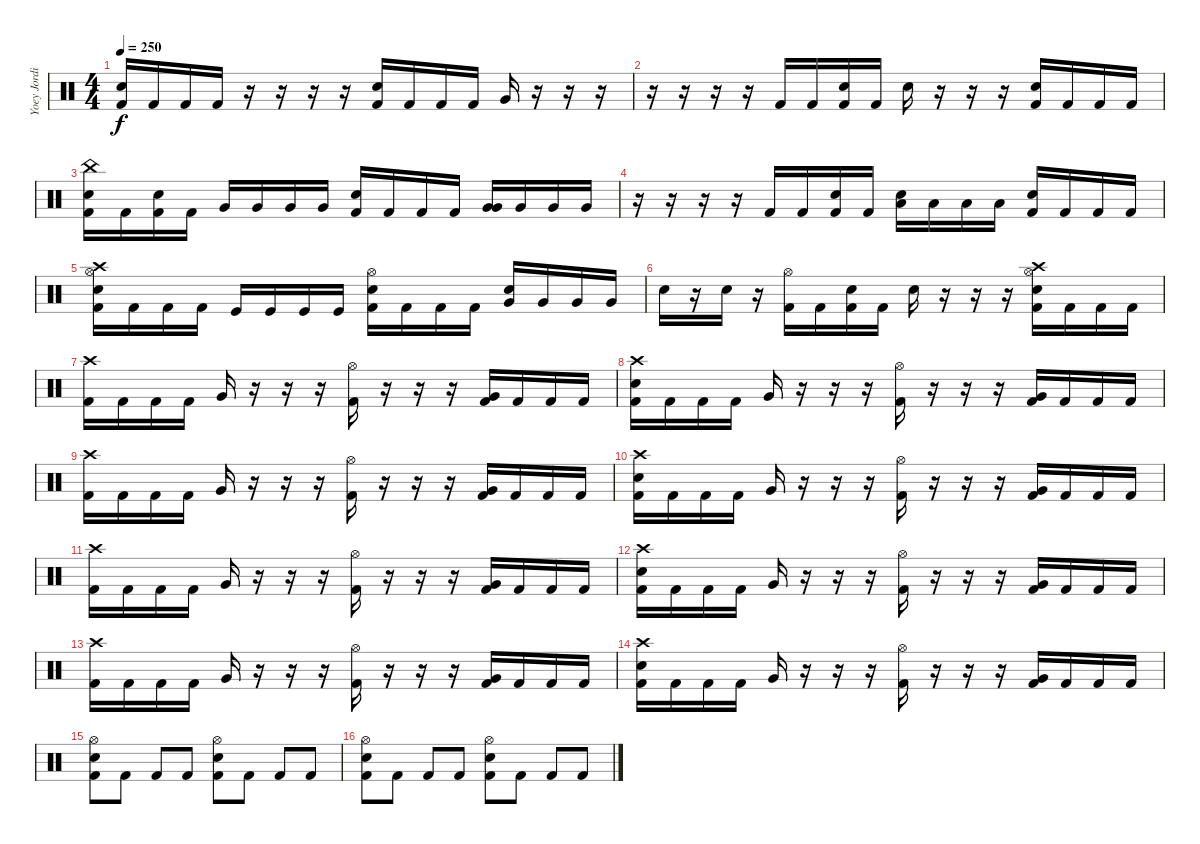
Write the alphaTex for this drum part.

\track ("Yoey Jordison" "Yoey Jordi") {instrument percussion}
\staff {score}
\articulation defaults
\ts (4 4)
\tempo 250
\clef neutral
\ks c
("Kick (hit) 2" "Electric Snare (hit)").16{dy f} "Kick (hit) 2".16 "Kick (hit) 2".16 "Kick (hit) 2".16 r.16 r.16 r.16 r.16 ("Kick (hit) 2" "Snare (hit) 2").16 "Kick (hit) 2".16 "Kick (hit) 2".16 "Kick (hit) 2".16 "Very Low Tom (hit)".16 r.16 r.16 r.16 |
r.16 r.16 r.16 r.16 "Kick (hit) 2".16 "Kick (hit) 2".16 ("Kick (hit) 2" "Snare (hit) 2").16 "Kick (hit) 2".16 "Snare (hit) 2".16 r.16 r.16 r.16 ("Kick (hit) 2" "Snare (hit) 2").16 "Kick (hit) 2".16 "Kick (hit) 2".16 "Kick (hit) 2".16 |
("China (hit)" "Kick (hit) 2" "Electric Snare (hit)").16 "Kick (hit) 2".16 ("Kick (hit) 2" "Electric Snare (hit)").16 "Kick (hit) 2".16 "Very Low Tom (hit)".16 "Very Low Tom (hit)".16 "Very Low Tom (hit)".16 "Very Low Tom (hit)".16 ("Kick (hit) 2" "Snare (hit) 2").16 "Kick (hit) 2".16 "Kick (hit) 2".16 "Kick (hit) 2".16 ("Very Low Tom (hit)" "Very Low Tom (hit)").16 "Very Low Tom (hit)".16 "Very Low Tom (hit)".16 "Very Low Tom (hit)".16 |
r.16 r.16 r.16 r.16 "Kick (hit) 2".16 "Kick (hit) 2".16 ("Kick (hit) 2" "Snare (hit) 2").16 "Kick (hit) 2".16 ("Low Floor Tom (hit)" "Snare (hit) 2").16 "Low Floor Tom (hit)".16 "Low Floor Tom (hit)".16 "Low Floor Tom (hit)".16 ("Kick (hit) 2" "Snare (hit) 2").16 "Kick (hit) 2".16 "Kick (hit) 2".16 "Kick (hit) 2".16 |
("Hi-Hat (open)" "Kick (hit) 2" "Crash high (hit)" "Electric Snare (hit)").16 "Kick (hit) 2".16 "Kick (hit) 2".16 "Kick (hit) 2".16 "Kick (hit)".16 "Kick (hit)".16 "Kick (hit)".16 "Kick (hit)".16 ("Hi-Hat (open)" "Kick (hit) 2" "Snare (hit) 2").16 "Kick (hit) 2".16 "Kick (hit) 2".16 "Kick (hit) 2".16 ("Very Low Tom (hit)" "Electric Snare (hit)").16 "Very Low Tom (hit)".16 "Very Low Tom (hit)".16 "Very Low Tom (hit)".16 |
"Snare (hit) 2".16 r.16 "Electric Snare (hit)".16 r.16 ("Hi-Hat (open)" "Kick (hit) 2").16 "Kick (hit) 2".16 ("Kick (hit) 2" "Snare (hit) 2").16 "Kick (hit) 2".16 "Snare (hit) 2".16 r.16 r.16 r.16 ("Hi-Hat (open)" "Kick (hit) 2" "Crash high (hit)" "Snare (hit) 2").16 "Kick (hit) 2".16 "Kick (hit) 2".16 "Kick (hit) 2".16 |
("Crash high (hit)" "Kick (hit) 2").16 "Kick (hit) 2".16 "Kick (hit) 2".16 "Kick (hit) 2".16 "Very Low Tom (hit)".16 r.16 r.16 r.16 ("Hi-Hat (open)" "Kick (hit) 2").16 r.16 r.16 r.16 ("Kick (hit) 2" "Very Low Tom (hit)").16 "Kick (hit) 2".16 "Kick (hit) 2".16 "Kick (hit) 2".16 |
("Crash high (hit)" "Kick (hit) 2" "Snare (hit) 2").16 "Kick (hit) 2".16 "Kick (hit) 2".16 "Kick (hit) 2".16 "Very Low Tom (hit)".16 r.16 r.16 r.16 ("Hi-Hat (open)" "Kick (hit) 2").16 r.16 r.16 r.16 ("Kick (hit) 2" "Very Low Tom (hit)").16 "Kick (hit) 2".16 "Kick (hit) 2".16 "Kick (hit) 2".16 |
("Crash high (hit)" "Kick (hit) 2").16 "Kick (hit) 2".16 "Kick (hit) 2".16 "Kick (hit) 2".16 "Very Low Tom (hit)".16 r.16 r.16 r.16 ("Hi-Hat (open)" "Kick (hit) 2").16 r.16 r.16 r.16 ("Kick (hit) 2" "Very Low Tom (hit)").16 "Kick (hit) 2".16 "Kick (hit) 2".16 "Kick (hit) 2".16 |
("Crash high (hit)" "Kick (hit) 2" "Snare (hit) 2").16 "Kick (hit) 2".16 "Kick (hit) 2".16 "Kick (hit) 2".16 "Very Low Tom (hit)".16 r.16 r.16 r.16 ("Hi-Hat (open)" "Kick (hit) 2").16 r.16 r.16 r.16 ("Kick (hit) 2" "Very Low Tom (hit)").16 "Kick (hit) 2".16 "Kick (hit) 2".16 "Kick (hit) 2".16 |
("Crash high (hit)" "Kick (hit) 2").16 "Kick (hit) 2".16 "Kick (hit) 2".16 "Kick (hit) 2".16 "Very Low Tom (hit)".16 r.16 r.16 r.16 ("Hi-Hat (open)" "Kick (hit) 2").16 r.16 r.16 r.16 ("Kick (hit) 2" "Very Low Tom (hit)").16 "Kick (hit) 2".16 "Kick (hit) 2".16 "Kick (hit) 2".16 |
("Crash high (hit)" "Kick (hit) 2" "Snare (hit) 2").16 "Kick (hit) 2".16 "Kick (hit) 2".16 "Kick (hit) 2".16 "Very Low Tom (hit)".16 r.16 r.16 r.16 ("Hi-Hat (open)" "Kick (hit) 2").16 r.16 r.16 r.16 ("Kick (hit) 2" "Very Low Tom (hit)").16 "Kick (hit) 2".16 "Kick (hit) 2".16 "Kick (hit) 2".16 |
("Crash high (hit)" "Kick (hit) 2").16 "Kick (hit) 2".16 "Kick (hit) 2".16 "Kick (hit) 2".16 "Very Low Tom (hit)".16 r.16 r.16 r.16 ("Hi-Hat (open)" "Kick (hit) 2").16 r.16 r.16 r.16 ("Kick (hit) 2" "Very Low Tom (hit)").16 "Kick (hit) 2".16 "Kick (hit) 2".16 "Kick (hit) 2".16 |
("Crash high (hit)" "Kick (hit) 2" "Snare (hit) 2").16 "Kick (hit) 2".16 "Kick (hit) 2".16 "Kick (hit) 2".16 "Very Low Tom (hit)".16 r.16 r.16 r.16 ("Hi-Hat (open)" "Kick (hit) 2").16 r.16 r.16 r.16 ("Kick (hit) 2" "Very Low Tom (hit)").16 "Kick (hit) 2".16 "Kick (hit) 2".16 "Kick (hit) 2".16 |
("Hi-Hat (open)" "Kick (hit) 2" "Electric Snare (hit)").8 "Kick (hit) 2".8 "Kick (hit) 2".8 "Kick (hit) 2".8 ("Hi-Hat (open)" "Kick (hit) 2" "Snare (hit) 2").8 "Kick (hit) 2".8 "Kick (hit) 2".8 "Kick (hit) 2".8 |
("Hi-Hat (open)" "Kick (hit) 2" "Electric Snare (hit)").8 "Kick (hit) 2".8 "Kick (hit) 2".8 "Kick (hit) 2".8 ("Hi-Hat (open)" "Kick (hit) 2" "Snare (hit) 2").8 "Kick (hit) 2".8 "Kick (hit) 2".8 "Kick (hit) 2".8
